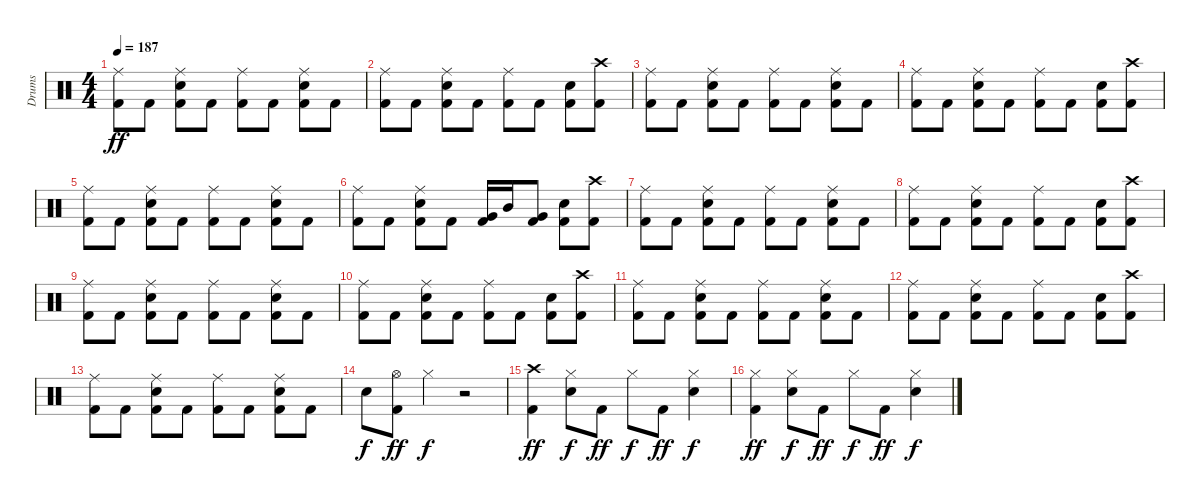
\track ("Drums" "Drums") {instrument percussion}
\staff {score}
\articulation defaults
\ts (4 4)
\tempo 187
\clef neutral
\ks c
("Ride (middle)" "Kick (hit) 2").8{dy ff} "Kick (hit) 2".8 ("Ride (middle)" "Electric Snare (hit)" "Kick (hit) 2").8 "Kick (hit) 2".8 ("Ride (middle)" "Kick (hit) 2").8 "Kick (hit) 2".8 ("Ride (middle)" "Electric Snare (hit)" "Kick (hit) 2").8 "Kick (hit) 2".8 |
("Ride (middle)" "Kick (hit) 2").8 "Kick (hit) 2".8 ("Ride (middle)" "Electric Snare (hit)" "Kick (hit) 2").8 "Kick (hit) 2".8 ("Ride (middle)" "Kick (hit) 2").8 "Kick (hit) 2".8 ("Electric Snare (hit)" "Kick (hit) 2").8 ("Crash high (hit)" "Kick (hit) 2").8 |
("Ride (middle)" "Kick (hit) 2").8 "Kick (hit) 2".8 ("Ride (middle)" "Electric Snare (hit)" "Kick (hit) 2").8 "Kick (hit) 2".8 ("Ride (middle)" "Kick (hit) 2").8 "Kick (hit) 2".8 ("Ride (middle)" "Electric Snare (hit)" "Kick (hit) 2").8 "Kick (hit) 2".8 |
("Ride (middle)" "Kick (hit) 2").8 "Kick (hit) 2".8 ("Ride (middle)" "Electric Snare (hit)" "Kick (hit) 2").8 "Kick (hit) 2".8 ("Ride (middle)" "Kick (hit) 2").8 "Kick (hit) 2".8 ("Electric Snare (hit)" "Kick (hit) 2").8 ("Crash high (hit)" "Kick (hit) 2").8 |
("Ride (middle)" "Kick (hit) 2").8 "Kick (hit) 2".8 ("Ride (middle)" "Electric Snare (hit)" "Kick (hit) 2").8 "Kick (hit) 2".8 ("Ride (middle)" "Kick (hit) 2").8 "Kick (hit) 2".8 ("Ride (middle)" "Electric Snare (hit)" "Kick (hit) 2").8 "Kick (hit) 2".8 |
("Ride (middle)" "Kick (hit) 2").8 "Kick (hit) 2".8 ("Ride (middle)" "Electric Snare (hit)" "Kick (hit) 2").8 "Kick (hit) 2".8 ("Very Low Tom (hit)" "Kick (hit) 2").16 "Mid Tom (hit)".16 ("Very Low Tom (hit)" "Kick (hit) 2").8 ("Electric Snare (hit)" "Kick (hit) 2").8 ("Crash high (hit)" "Kick (hit) 2").8 |
("Ride (middle)" "Kick (hit) 2").8 "Kick (hit) 2".8 ("Ride (middle)" "Electric Snare (hit)" "Kick (hit) 2").8 "Kick (hit) 2".8 ("Ride (middle)" "Kick (hit) 2").8 "Kick (hit) 2".8 ("Ride (middle)" "Electric Snare (hit)" "Kick (hit) 2").8 "Kick (hit) 2".8 |
("Ride (middle)" "Kick (hit) 2").8 "Kick (hit) 2".8 ("Ride (middle)" "Electric Snare (hit)" "Kick (hit) 2").8 "Kick (hit) 2".8 ("Ride (middle)" "Kick (hit) 2").8 "Kick (hit) 2".8 ("Electric Snare (hit)" "Kick (hit) 2").8 ("Crash high (hit)" "Kick (hit) 2").8 |
("Ride (middle)" "Kick (hit) 2").8 "Kick (hit) 2".8 ("Ride (middle)" "Electric Snare (hit)" "Kick (hit) 2").8 "Kick (hit) 2".8 ("Ride (middle)" "Kick (hit) 2").8 "Kick (hit) 2".8 ("Ride (middle)" "Electric Snare (hit)" "Kick (hit) 2").8 "Kick (hit) 2".8 |
("Ride (middle)" "Kick (hit) 2").8 "Kick (hit) 2".8 ("Ride (middle)" "Electric Snare (hit)" "Kick (hit) 2").8 "Kick (hit) 2".8 ("Ride (middle)" "Kick (hit) 2").8 "Kick (hit) 2".8 ("Electric Snare (hit)" "Kick (hit) 2").8 ("Crash high (hit)" "Kick (hit) 2").8 |
("Ride (middle)" "Kick (hit) 2").8 "Kick (hit) 2".8 ("Ride (middle)" "Electric Snare (hit)" "Kick (hit) 2").8 "Kick (hit) 2".8 ("Ride (middle)" "Kick (hit) 2").8 "Kick (hit) 2".8 ("Ride (middle)" "Electric Snare (hit)" "Kick (hit) 2").8 "Kick (hit) 2".8 |
("Ride (middle)" "Kick (hit) 2").8 "Kick (hit) 2".8 ("Ride (middle)" "Electric Snare (hit)" "Kick (hit) 2").8 "Kick (hit) 2".8 ("Ride (middle)" "Kick (hit) 2").8 "Kick (hit) 2".8 ("Electric Snare (hit)" "Kick (hit) 2").8 ("Crash high (hit)" "Kick (hit) 2").8 |
("Ride (middle)" "Kick (hit) 2").8 "Kick (hit) 2".8 ("Ride (middle)" "Electric Snare (hit)" "Kick (hit) 2").8 "Kick (hit) 2".8 ("Ride (middle)" "Kick (hit) 2").8 "Kick (hit) 2".8 ("Ride (middle)" "Electric Snare (hit)" "Kick (hit) 2").8 "Kick (hit) 2".8 |
"Electric Snare (hit)".8{dy f} ("Hi-Hat (open)" "Kick (hit) 2").8{dy ff} "Hi-Hat (closed)".4{dy f} r.2 |
("Crash high (hit)" "Kick (hit) 2").4{dy ff} ("Hi-Hat (closed)" "Electric Snare (hit)").8{dy f} "Kick (hit) 2".8{dy ff} "Hi-Hat (closed)".8{dy f} "Kick (hit) 2".8{dy ff} ("Hi-Hat (closed)" "Electric Snare (hit)").4{dy f} |
("Hi-Hat (closed)" "Kick (hit) 2").4{dy ff} ("Hi-Hat (closed)" "Electric Snare (hit)").8{dy f} "Kick (hit) 2".8{dy ff} "Hi-Hat (closed)".8{dy f} "Kick (hit) 2".8{dy ff} ("Hi-Hat (closed)" "Electric Snare (hit)").4{dy f}
